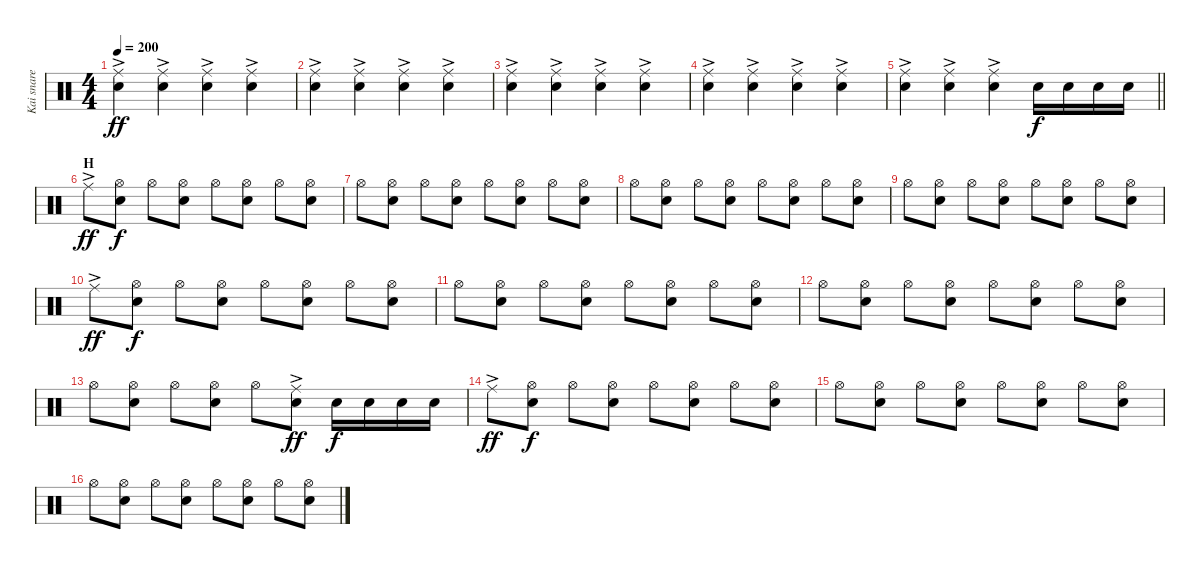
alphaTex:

\track ("Kai snare" "Kai snare") {instrument percussion}
\staff {score}
\articulation defaults
\ts (4 4)
\tempo 200
\clef neutral
\ks c
("Ride (middle)"{ac} "Snare (hit) 2").4{dy ff} ("Ride (middle)"{ac} "Snare (hit) 2").4 ("Ride (middle)"{ac} "Snare (hit) 2").4 ("Ride (middle)"{ac} "Snare (hit) 2").4 |
("Ride (middle)"{ac} "Snare (hit) 2").4 ("Ride (middle)"{ac} "Snare (hit) 2").4 ("Ride (middle)"{ac} "Snare (hit) 2").4 ("Ride (middle)"{ac} "Snare (hit) 2").4 |
("Ride (middle)"{ac} "Snare (hit) 2").4 ("Ride (middle)"{ac} "Snare (hit) 2").4 ("Ride (middle)"{ac} "Snare (hit) 2").4 ("Ride (middle)"{ac} "Snare (hit) 2").4 |
("Ride (middle)"{ac} "Snare (hit) 2").4 ("Ride (middle)"{ac} "Snare (hit) 2").4 ("Ride (middle)"{ac} "Snare (hit) 2").4 ("Ride (middle)"{ac} "Snare (hit) 2").4 |
\barLineRight lightlight
("Ride (middle)"{ac} "Snare (hit) 2").4 ("Ride (middle)"{ac} "Snare (hit) 2").4 ("Ride (middle)"{ac} "Snare (hit) 2").4 "Snare (hit) 2".16{dy f} "Snare (hit) 2".16 "Snare (hit) 2".16 "Snare (hit) 2".16 |
\section ("" "H")
"Ride (middle)"{ac}.8{dy ff} ("Hi-Hat (open)" "Snare (hit) 2").8{dy f} "Hi-Hat (open)".8 ("Hi-Hat (open)" "Snare (hit) 2").8 "Hi-Hat (open)".8 ("Hi-Hat (open)" "Snare (hit) 2").8 "Hi-Hat (open)".8 ("Hi-Hat (open)" "Snare (hit) 2").8 |
"Hi-Hat (open)".8 ("Hi-Hat (open)" "Snare (hit) 2").8 "Hi-Hat (open)".8 ("Hi-Hat (open)" "Snare (hit) 2").8 "Hi-Hat (open)".8 ("Hi-Hat (open)" "Snare (hit) 2").8 "Hi-Hat (open)".8 ("Hi-Hat (open)" "Snare (hit) 2").8 |
"Hi-Hat (open)".8 ("Hi-Hat (open)" "Snare (hit) 2").8 "Hi-Hat (open)".8 ("Hi-Hat (open)" "Snare (hit) 2").8 "Hi-Hat (open)".8 ("Hi-Hat (open)" "Snare (hit) 2").8 "Hi-Hat (open)".8 ("Hi-Hat (open)" "Snare (hit) 2").8 |
"Hi-Hat (open)".8 ("Hi-Hat (open)" "Snare (hit) 2").8 "Hi-Hat (open)".8 ("Hi-Hat (open)" "Snare (hit) 2").8 "Hi-Hat (open)".8 ("Hi-Hat (open)" "Snare (hit) 2").8 "Hi-Hat (open)".8 ("Hi-Hat (open)" "Snare (hit) 2").8 |
"Ride (middle)"{ac}.8{dy ff} ("Hi-Hat (open)" "Snare (hit) 2").8{dy f} "Hi-Hat (open)".8 ("Hi-Hat (open)" "Snare (hit) 2").8 "Hi-Hat (open)".8 ("Hi-Hat (open)" "Snare (hit) 2").8 "Hi-Hat (open)".8 ("Hi-Hat (open)" "Snare (hit) 2").8 |
"Hi-Hat (open)".8 ("Hi-Hat (open)" "Snare (hit) 2").8 "Hi-Hat (open)".8 ("Hi-Hat (open)" "Snare (hit) 2").8 "Hi-Hat (open)".8 ("Hi-Hat (open)" "Snare (hit) 2").8 "Hi-Hat (open)".8 ("Hi-Hat (open)" "Snare (hit) 2").8 |
"Hi-Hat (open)".8 ("Hi-Hat (open)" "Snare (hit) 2").8 "Hi-Hat (open)".8 ("Hi-Hat (open)" "Snare (hit) 2").8 "Hi-Hat (open)".8 ("Hi-Hat (open)" "Snare (hit) 2").8 "Hi-Hat (open)".8 ("Hi-Hat (open)" "Snare (hit) 2").8 |
"Hi-Hat (open)".8 ("Hi-Hat (open)" "Snare (hit) 2").8 "Hi-Hat (open)".8 ("Hi-Hat (open)" "Snare (hit) 2").8 "Hi-Hat (open)".8 ("Ride (middle)"{ac} "Snare (hit) 2").8{dy ff} "Snare (hit) 2".16{dy f} "Snare (hit) 2".16 "Snare (hit) 2".16 "Snare (hit) 2".16 |
"Ride (middle)"{ac}.8{dy ff} ("Hi-Hat (open)" "Snare (hit) 2").8{dy f} "Hi-Hat (open)".8 ("Hi-Hat (open)" "Snare (hit) 2").8 "Hi-Hat (open)".8 ("Hi-Hat (open)" "Snare (hit) 2").8 "Hi-Hat (open)".8 ("Hi-Hat (open)" "Snare (hit) 2").8 |
"Hi-Hat (open)".8 ("Hi-Hat (open)" "Snare (hit) 2").8 "Hi-Hat (open)".8 ("Hi-Hat (open)" "Snare (hit) 2").8 "Hi-Hat (open)".8 ("Hi-Hat (open)" "Snare (hit) 2").8 "Hi-Hat (open)".8 ("Hi-Hat (open)" "Snare (hit) 2").8 |
"Hi-Hat (open)".8 ("Hi-Hat (open)" "Snare (hit) 2").8 "Hi-Hat (open)".8 ("Hi-Hat (open)" "Snare (hit) 2").8 "Hi-Hat (open)".8 ("Hi-Hat (open)" "Snare (hit) 2").8 "Hi-Hat (open)".8 ("Hi-Hat (open)" "Snare (hit) 2").8
